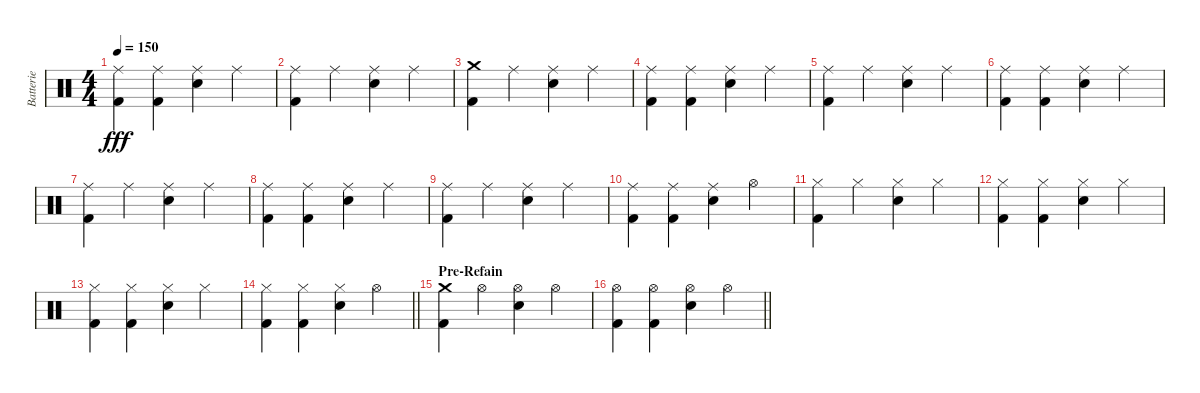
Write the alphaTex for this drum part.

\track ("Batterie" "Batterie") {instrument percussion}
\staff {score}
\articulation defaults
\ts (4 4)
\tempo 150
\clef neutral
\ks c
("Ride (middle)" "Kick (hit) 2").4{dy fff} ("Ride (middle)" "Kick (hit) 2").4 ("Ride (middle)" "Electric Snare (hit)").4 "Ride (middle)".4 |
("Ride (middle)" "Kick (hit) 2").4 "Ride (middle)".4 ("Ride (middle)" "Electric Snare (hit)").4 "Ride (middle)".4 |
("Crash medium (hit)" "Kick (hit) 2").4 "Ride (middle)".4 ("Ride (middle)" "Electric Snare (hit)").4 "Ride (middle)".4 |
("Ride (middle)" "Kick (hit) 2").4 ("Ride (middle)" "Kick (hit) 2").4 ("Ride (middle)" "Electric Snare (hit)").4 "Ride (middle)".4 |
("Ride (middle)" "Kick (hit) 2").4 "Ride (middle)".4 ("Ride (middle)" "Electric Snare (hit)").4 "Ride (middle)".4 |
("Ride (middle)" "Kick (hit) 2").4 ("Ride (middle)" "Kick (hit) 2").4 ("Ride (middle)" "Electric Snare (hit)").4 "Ride (middle)".4 |
("Ride (middle)" "Kick (hit) 2").4 "Ride (middle)".4 ("Ride (middle)" "Electric Snare (hit)").4 "Ride (middle)".4 |
("Ride (middle)" "Kick (hit) 2").4 ("Ride (middle)" "Kick (hit) 2").4 ("Ride (middle)" "Electric Snare (hit)").4 "Ride (middle)".4 |
("Ride (middle)" "Kick (hit) 2").4 "Ride (middle)".4 ("Ride (middle)" "Electric Snare (hit)").4 "Ride (middle)".4 |
("Ride (middle)" "Kick (hit) 2").4 ("Ride (middle)" "Kick (hit) 2").4 ("Ride (middle)" "Electric Snare (hit)").4 "Hi-Hat (open)".4 |
("Hi-Hat (closed)" "Kick (hit) 2").4 "Hi-Hat (closed)".4 ("Hi-Hat (closed)" "Electric Snare (hit)").4 "Hi-Hat (closed)".4 |
("Hi-Hat (closed)" "Kick (hit) 2").4 ("Hi-Hat (closed)" "Kick (hit) 2").4 ("Hi-Hat (closed)" "Electric Snare (hit)").4 "Hi-Hat (closed)".4 |
("Hi-Hat (closed)" "Kick (hit) 2").4 ("Hi-Hat (closed)" "Kick (hit) 2").4 ("Hi-Hat (closed)" "Electric Snare (hit)").4 "Hi-Hat (closed)".4 |
\barLineRight lightlight
("Hi-Hat (closed)" "Kick (hit) 2").4 ("Hi-Hat (closed)" "Kick (hit) 2").4 ("Hi-Hat (closed)" "Electric Snare (hit)").4 "Hi-Hat (open)".4 |
\section ("" "Pre-Refain")
("Crash medium (hit)" "Kick (hit) 2").4 "Hi-Hat (open)".4 ("Hi-Hat (open)" "Electric Snare (hit)").4 "Hi-Hat (open)".4 |
\barLineRight lightlight
("Hi-Hat (open)" "Kick (hit) 2").4 ("Hi-Hat (open)" "Kick (hit) 2").4 ("Hi-Hat (open)" "Electric Snare (hit)").4 "Hi-Hat (open)".4
